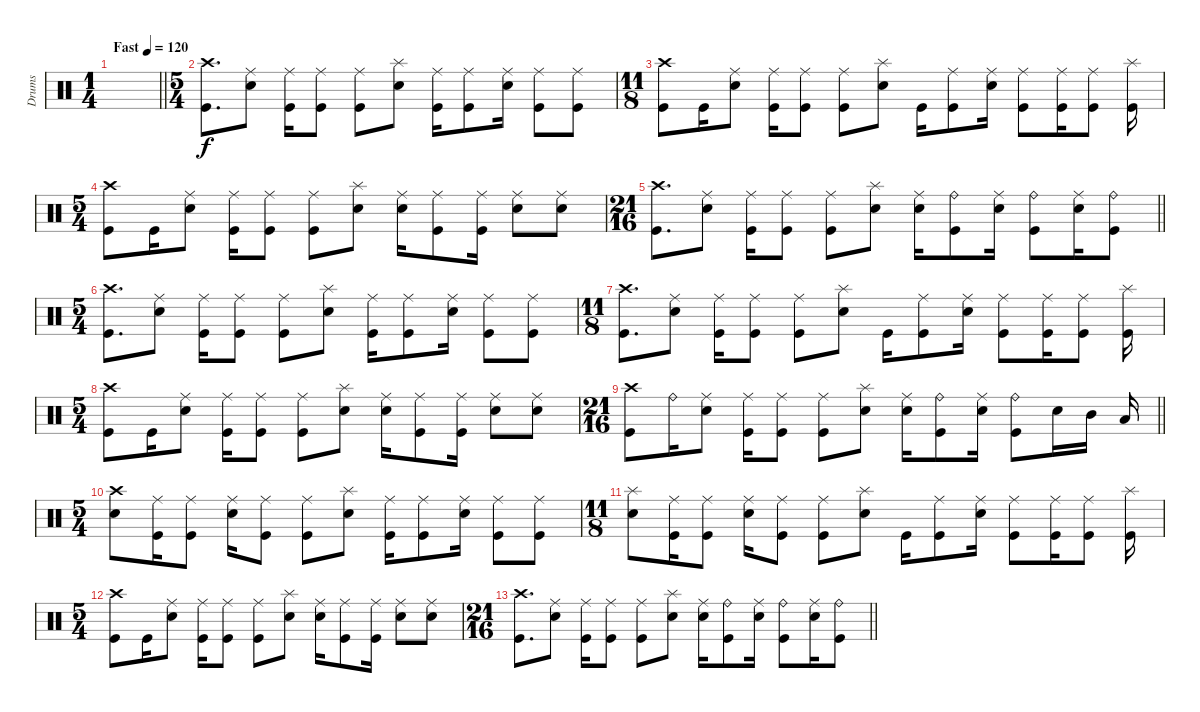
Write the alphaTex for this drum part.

\track ("Drums" "Drums") {instrument percussion}
\staff
\articulation defaults
\ts (1 4)
\tempo (120 "Fast")
\clef neutral
\barLineRight lightlight
\ks c
|
\ts (5 4)
("Crash high (hit)" "Kick (hit)").8{d} ("Ride (middle)" "Electric Snare (hit)").8 ("Ride (middle)" "Kick (hit)").16 ("Ride (middle)" "Kick (hit)").8 ("Ride (middle)" "Kick (hit)").8 ("Splash (hit)" "Electric Snare (hit)").8 ("Ride (middle)" "Kick (hit)").16 ("Ride (middle)" "Kick (hit)").8 ("Ride (middle)" "Electric Snare (hit)").16 ("Ride (middle)" "Kick (hit)").8 ("Ride (middle)" "Kick (hit)").8 |
\ts (11 8)
("Crash high (hit)" "Kick (hit)").8 "Kick (hit)".16 ("Ride (middle)" "Electric Snare (hit)").8 ("Ride (middle)" "Kick (hit)").16 ("Ride (middle)" "Kick (hit)").8 ("Ride (middle)" "Kick (hit)").8 ("Splash (hit)" "Electric Snare (hit)").8 "Kick (hit)".16 ("Ride (middle)" "Kick (hit)").8 ("Ride (middle)" "Electric Snare (hit)").16 ("Ride (middle)" "Kick (hit)").8 ("Ride (middle)" "Kick (hit)").16 ("Ride (middle)" "Kick (hit)").8 ("Splash (hit)" "Kick (hit)").16 |
\ts (5 4)
("Crash high (hit)" "Kick (hit)").8 "Kick (hit)".16 ("Ride (middle)" "Electric Snare (hit)").8 ("Ride (middle)" "Kick (hit)").16 ("Ride (middle)" "Kick (hit)").8 ("Ride (middle)" "Kick (hit)").8 ("Splash (hit)" "Electric Snare (hit)").8 ("Ride (middle)" "Electric Snare (hit)").16 ("Ride (middle)" "Kick (hit)").8 ("Ride (middle)" "Kick (hit)").16 ("Ride (middle)" "Electric Snare (hit)").8 ("Ride (middle)" "Electric Snare (hit)").8 |
\ts (21 16)
\barLineRight lightlight
("Crash high (hit)" "Kick (hit)").8{d} ("Ride (middle)" "Electric Snare (hit)").8 ("Ride (middle)" "Kick (hit)").16 ("Ride (middle)" "Kick (hit)").8 ("Ride (middle)" "Kick (hit)").8 ("Splash (hit)" "Electric Snare (hit)").8 ("Ride (middle)" "Electric Snare (hit)").16 ("Ride (bell)" "Kick (hit)").8 ("Ride (middle)" "Electric Snare (hit)").16 ("Ride (bell)" "Kick (hit)").8 ("Ride (middle)" "Electric Snare (hit)").16 ("Ride (bell)" "Kick (hit)").8 |
\ts (5 4)
("Crash high (hit)" "Kick (hit)").8{d} ("Ride (middle)" "Electric Snare (hit)").8 ("Ride (middle)" "Kick (hit)").16 ("Ride (middle)" "Kick (hit)").8 ("Ride (middle)" "Kick (hit)").8 ("Splash (hit)" "Electric Snare (hit)").8 ("Ride (middle)" "Kick (hit)").16 ("Ride (middle)" "Kick (hit)").8 ("Ride (middle)" "Electric Snare (hit)").16 ("Ride (middle)" "Kick (hit)").8 ("Ride (middle)" "Kick (hit)").8 |
\ts (11 8)
("Crash high (hit)" "Kick (hit)").8{d} ("Ride (middle)" "Electric Snare (hit)").8 ("Ride (middle)" "Kick (hit)").16 ("Ride (middle)" "Kick (hit)").8 ("Ride (middle)" "Kick (hit)").8 ("Splash (hit)" "Electric Snare (hit)").8 "Kick (hit)".16 ("Ride (middle)" "Kick (hit)").8 ("Ride (middle)" "Electric Snare (hit)").16 ("Ride (middle)" "Kick (hit)").8 ("Ride (middle)" "Kick (hit)").16 ("Ride (middle)" "Kick (hit)").8 ("Splash (hit)" "Kick (hit)").16 |
\ts (5 4)
("Crash high (hit)" "Kick (hit)").8 "Kick (hit)".16 ("Ride (middle)" "Electric Snare (hit)").8 ("Ride (middle)" "Kick (hit)").16 ("Ride (middle)" "Kick (hit)").8 ("Ride (middle)" "Kick (hit)").8 ("Splash (hit)" "Electric Snare (hit)").8 ("Ride (middle)" "Electric Snare (hit)").16 ("Ride (middle)" "Kick (hit)").8 ("Ride (middle)" "Kick (hit)").16 ("Ride (middle)" "Electric Snare (hit)").8 ("Ride (middle)" "Electric Snare (hit)").8 |
\ts (21 16)
\barLineRight lightlight
("Crash high (hit)" "Kick (hit)").8 "Ride (bell)".16 ("Ride (middle)" "Electric Snare (hit)").8 ("Ride (middle)" "Kick (hit)").16 ("Ride (middle)" "Kick (hit)").8 ("Ride (middle)" "Kick (hit)").8 ("Splash (hit)" "Electric Snare (hit)").8 ("Ride (middle)" "Electric Snare (hit)").16 ("Ride (bell)" "Kick (hit)").8 ("Ride (middle)" "Electric Snare (hit)").16 ("Ride (bell)" "Kick (hit)").8 "Electric Snare (hit)".16 "Mid Tom (hit)".16 "Low Tom (hit)".16 |
\ts (5 4)
("Crash high (hit)" "Electric Snare (hit)").8 ("Ride (middle)" "Kick (hit)").16 ("Ride (middle)" "Kick (hit)").8 ("Ride (middle)" "Electric Snare (hit)").16 ("Ride (middle)" "Kick (hit)").8 ("Ride (middle)" "Kick (hit)").8 ("Splash (hit)" "Electric Snare (hit)").8 ("Ride (middle)" "Kick (hit)").16 ("Ride (middle)" "Kick (hit)").8 ("Ride (middle)" "Electric Snare (hit)").16 ("Ride (middle)" "Kick (hit)").8 ("Ride (middle)" "Kick (hit)").8 |
\ts (11 8)
("Splash (hit)" "Electric Snare (hit)").8 ("Ride (middle)" "Kick (hit)").16 ("Ride (middle)" "Kick (hit)").8 ("Ride (middle)" "Electric Snare (hit)").16 ("Ride (middle)" "Kick (hit)").8 ("Ride (middle)" "Kick (hit)").8 ("Splash (hit)" "Electric Snare (hit)").8 "Kick (hit)".16 ("Ride (middle)" "Kick (hit)").8 ("Ride (middle)" "Electric Snare (hit)").16 ("Ride (middle)" "Kick (hit)").8 ("Ride (middle)" "Kick (hit)").16 ("Ride (middle)" "Kick (hit)").8 ("Splash (hit)" "Kick (hit)").16 |
\ts (5 4)
("Crash high (hit)" "Kick (hit)").8 "Kick (hit)".16 ("Ride (middle)" "Electric Snare (hit)").8 ("Ride (middle)" "Kick (hit)").16 ("Ride (middle)" "Kick (hit)").8 ("Ride (middle)" "Kick (hit)").8 ("Splash (hit)" "Electric Snare (hit)").8 ("Ride (middle)" "Electric Snare (hit)").16 ("Ride (middle)" "Kick (hit)").8 ("Ride (middle)" "Kick (hit)").16 ("Ride (middle)" "Electric Snare (hit)").8 ("Ride (middle)" "Electric Snare (hit)").8 |
\ts (21 16)
\barLineRight lightlight
("Crash high (hit)" "Kick (hit)").8{d} ("Ride (middle)" "Electric Snare (hit)").8 ("Ride (middle)" "Kick (hit)").16 ("Ride (middle)" "Kick (hit)").8 ("Ride (middle)" "Kick (hit)").8 ("Splash (hit)" "Electric Snare (hit)").8 ("Ride (middle)" "Electric Snare (hit)").16 ("Ride (bell)" "Kick (hit)").8 ("Ride (middle)" "Electric Snare (hit)").16 ("Ride (bell)" "Kick (hit)").8 ("Ride (middle)" "Electric Snare (hit)").16 ("Ride (bell)" "Kick (hit)").8
